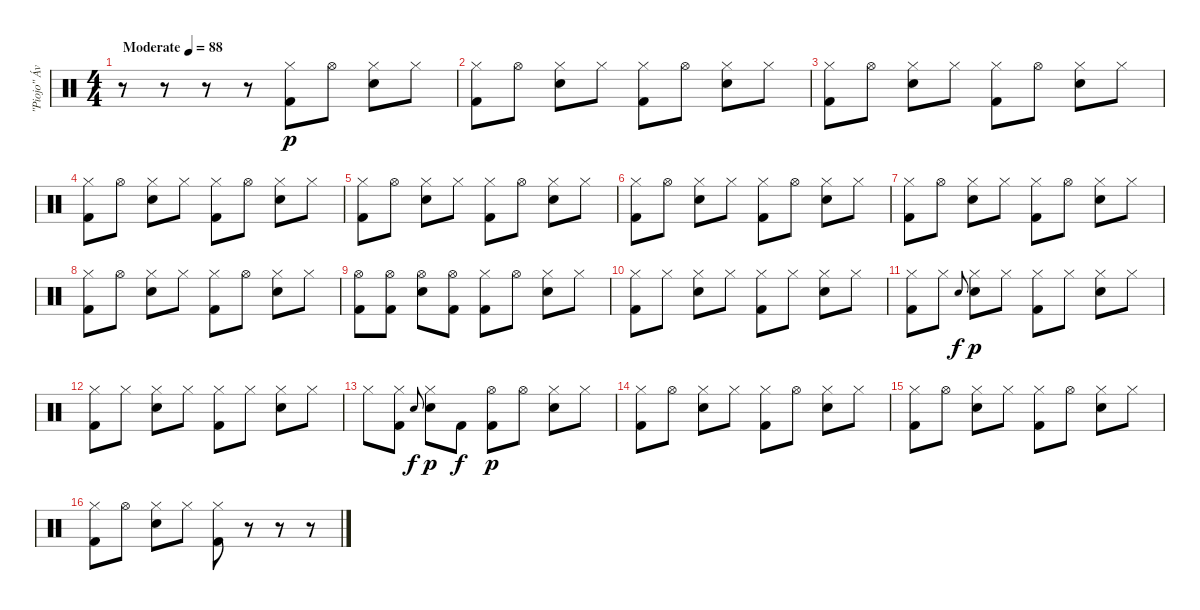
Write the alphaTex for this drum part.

\track ("\"Piojo\" Ávalos" "\"Piojo\" Áv") {instrument percussion}
\staff {score}
\articulation defaults
\ts (4 4)
\tempo (88 "Moderate")
\clef neutral
\ks c
r.8{dy p} r.8 r.8 r.8 ("Hi-Hat (closed)" "Kick (hit) 2").8 "Hi-Hat (open)".8 ("Hi-Hat (closed)" "Snare (hit) 2").8 "Hi-Hat (closed)".8 |
("Hi-Hat (closed)" "Kick (hit) 2").8 "Hi-Hat (open)".8 ("Hi-Hat (closed)" "Snare (hit) 2").8 "Hi-Hat (closed)".8 ("Hi-Hat (closed)" "Kick (hit) 2").8 "Hi-Hat (open)".8 ("Hi-Hat (closed)" "Snare (hit) 2").8 "Hi-Hat (closed)".8 |
("Hi-Hat (closed)" "Kick (hit) 2").8 "Hi-Hat (open)".8 ("Hi-Hat (closed)" "Snare (hit) 2").8 "Hi-Hat (closed)".8 ("Hi-Hat (closed)" "Kick (hit) 2").8 "Hi-Hat (open)".8 ("Hi-Hat (closed)" "Snare (hit) 2").8 "Hi-Hat (closed)".8 |
("Hi-Hat (closed)" "Kick (hit) 2").8 "Hi-Hat (open)".8 ("Hi-Hat (closed)" "Snare (hit) 2").8 "Hi-Hat (closed)".8 ("Hi-Hat (closed)" "Kick (hit) 2").8 "Hi-Hat (open)".8 ("Hi-Hat (closed)" "Snare (hit) 2").8 "Hi-Hat (closed)".8 |
("Hi-Hat (closed)" "Kick (hit) 2").8 "Hi-Hat (open)".8 ("Hi-Hat (closed)" "Snare (hit) 2").8 "Hi-Hat (closed)".8 ("Hi-Hat (closed)" "Kick (hit) 2").8 "Hi-Hat (open)".8 ("Hi-Hat (closed)" "Snare (hit) 2").8 "Hi-Hat (closed)".8 |
("Hi-Hat (closed)" "Kick (hit) 2").8 "Hi-Hat (open)".8 ("Hi-Hat (closed)" "Snare (hit) 2").8 "Hi-Hat (closed)".8 ("Hi-Hat (closed)" "Kick (hit) 2").8 "Hi-Hat (open)".8 ("Hi-Hat (closed)" "Snare (hit) 2").8 "Hi-Hat (closed)".8 |
("Hi-Hat (closed)" "Kick (hit) 2").8 "Hi-Hat (open)".8 ("Hi-Hat (closed)" "Snare (hit) 2").8 "Hi-Hat (closed)".8 ("Hi-Hat (closed)" "Kick (hit) 2").8 "Hi-Hat (open)".8 ("Hi-Hat (closed)" "Snare (hit) 2").8 "Hi-Hat (closed)".8 |
("Hi-Hat (closed)" "Kick (hit) 2").8 "Hi-Hat (open)".8 ("Hi-Hat (closed)" "Snare (hit) 2").8 "Hi-Hat (closed)".8 ("Hi-Hat (closed)" "Kick (hit) 2").8 "Hi-Hat (open)".8 ("Hi-Hat (closed)" "Snare (hit) 2").8 "Hi-Hat (closed)".8 |
("Hi-Hat (open)" "Kick (hit) 2").8 ("Hi-Hat (open)" "Kick (hit) 2").8 ("Hi-Hat (open)" "Snare (hit) 2").8 ("Hi-Hat (open)" "Kick (hit) 2").8 ("Hi-Hat (closed)" "Kick (hit) 2").8 "Hi-Hat (open)".8 ("Hi-Hat (closed)" "Snare (hit) 2").8 "Hi-Hat (closed)".8 |
("Hi-Hat (closed)" "Kick (hit) 2").8 "Hi-Hat (closed)".8 ("Hi-Hat (closed)" "Snare (hit) 2").8 "Hi-Hat (closed)".8 ("Hi-Hat (closed)" "Kick (hit) 2").8 "Hi-Hat (closed)".8 ("Hi-Hat (closed)" "Snare (hit) 2").8 "Hi-Hat (closed)".8 |
("Hi-Hat (closed)" "Kick (hit) 2").8 "Hi-Hat (closed)".8 "Snare (hit) 2".8{gr onbeat dy f} ("Hi-Hat (closed)" "Snare (hit) 2").8{dy p} "Hi-Hat (closed)".8 ("Hi-Hat (closed)" "Kick (hit) 2").8 "Hi-Hat (closed)".8 ("Hi-Hat (closed)" "Snare (hit) 2").8 "Hi-Hat (closed)".8 |
("Hi-Hat (closed)" "Kick (hit) 2").8 "Hi-Hat (closed)".8 ("Hi-Hat (closed)" "Snare (hit) 2").8 "Hi-Hat (closed)".8 ("Hi-Hat (closed)" "Kick (hit) 2").8 "Hi-Hat (closed)".8 ("Hi-Hat (closed)" "Snare (hit) 2").8 "Hi-Hat (closed)".8 |
"Hi-Hat (closed)".8 ("Hi-Hat (closed)" "Kick (hit) 2").8 "Snare (hit) 2".8{gr onbeat dy f} ("Hi-Hat (closed)" "Snare (hit) 2").8{dy p} "Kick (hit) 2".8{dy f} ("Hi-Hat (open)" "Kick (hit) 2").8{dy p} "Hi-Hat (open)".8 ("Hi-Hat (closed)" "Snare (hit) 2").8 "Hi-Hat (closed)".8 |
("Hi-Hat (closed)" "Kick (hit) 2").8 "Hi-Hat (open)".8 ("Hi-Hat (closed)" "Snare (hit) 2").8 "Hi-Hat (closed)".8 ("Hi-Hat (closed)" "Kick (hit) 2").8 "Hi-Hat (open)".8 ("Hi-Hat (closed)" "Snare (hit) 2").8 "Hi-Hat (closed)".8 |
("Hi-Hat (closed)" "Kick (hit) 2").8 "Hi-Hat (open)".8 ("Hi-Hat (closed)" "Snare (hit) 2").8 "Hi-Hat (closed)".8 ("Hi-Hat (closed)" "Kick (hit) 2").8 "Hi-Hat (open)".8 ("Hi-Hat (closed)" "Snare (hit) 2").8 "Hi-Hat (closed)".8 |
("Hi-Hat (closed)" "Kick (hit) 2").8 "Hi-Hat (open)".8 ("Hi-Hat (closed)" "Snare (hit) 2").8 "Hi-Hat (closed)".8 ("Hi-Hat (closed)" "Kick (hit) 2").8 r.8 r.8 r.8
